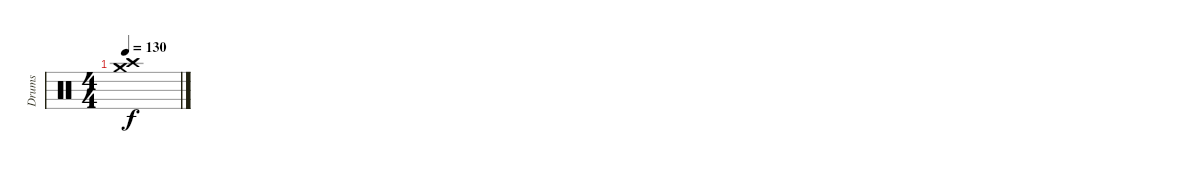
\track ("Drums" "Drums") {instrument percussion}
\staff {score}
\articulation defaults
\ts (4 4)
\tempo 130
\clef neutral
\ks c
("Crash high (hit)" "Crash medium (hit)").1{dy f}
